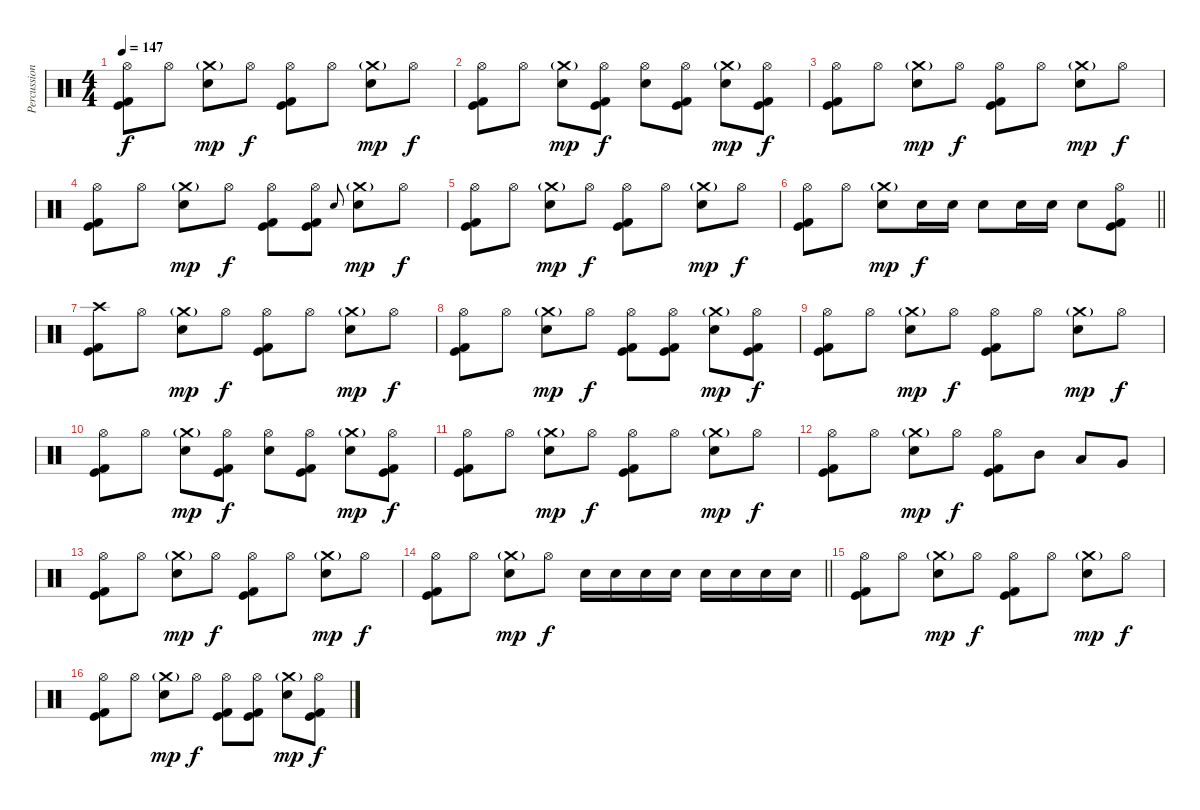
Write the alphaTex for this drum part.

\track ("Percussion" "Percussion") {instrument percussion}
\staff {score}
\articulation defaults
\ts (4 4)
\tempo 147
\clef neutral
\ks c
("Hi-Hat (open)" "Kick (hit)" "Kick (hit) 2").8{dy f} "Hi-Hat (open)".8 ("Crash medium (hit)"{g} "Electric Snare (hit)").8{dy mp} "Hi-Hat (open)".8{dy f} ("Hi-Hat (open)" "Kick (hit)" "Kick (hit) 2").8 "Hi-Hat (open)".8 ("Crash medium (hit)"{g} "Electric Snare (hit)").8{dy mp} "Hi-Hat (open)".8{dy f} |
("Hi-Hat (open)" "Kick (hit)" "Kick (hit) 2").8 "Hi-Hat (open)".8 ("Crash medium (hit)"{g} "Electric Snare (hit)").8{dy mp} ("Hi-Hat (open)" "Kick (hit)" "Kick (hit) 2").8{dy f} ("Hi-Hat (open)" "Electric Snare (hit)").8 ("Hi-Hat (open)" "Kick (hit)" "Kick (hit) 2").8 ("Crash medium (hit)"{g} "Electric Snare (hit)").8{dy mp} ("Hi-Hat (open)" "Kick (hit)" "Kick (hit) 2").8{dy f} |
("Hi-Hat (open)" "Kick (hit)" "Kick (hit) 2").8 "Hi-Hat (open)".8 ("Crash medium (hit)"{g} "Electric Snare (hit)").8{dy mp} "Hi-Hat (open)".8{dy f} ("Hi-Hat (open)" "Kick (hit)" "Kick (hit) 2").8 "Hi-Hat (open)".8 ("Crash medium (hit)"{g} "Electric Snare (hit)").8{dy mp} "Hi-Hat (open)".8{dy f} |
("Hi-Hat (open)" "Kick (hit)" "Kick (hit) 2").8 "Hi-Hat (open)".8 ("Crash medium (hit)"{g} "Electric Snare (hit)").8{dy mp} "Hi-Hat (open)".8{dy f} ("Hi-Hat (open)" "Kick (hit)" "Kick (hit) 2").8 ("Hi-Hat (open)" "Kick (hit)" "Kick (hit) 2").8 "Electric Snare (hit)".8{gr onbeat} ("Crash medium (hit)"{g} "Electric Snare (hit)").8{dy mp} "Hi-Hat (open)".8{dy f} |
("Hi-Hat (open)" "Kick (hit)" "Kick (hit) 2").8 "Hi-Hat (open)".8 ("Crash medium (hit)"{g} "Electric Snare (hit)").8{dy mp} "Hi-Hat (open)".8{dy f} ("Hi-Hat (open)" "Kick (hit)" "Kick (hit) 2").8 "Hi-Hat (open)".8 ("Crash medium (hit)"{g} "Electric Snare (hit)").8{dy mp} "Hi-Hat (open)".8{dy f} |
\barLineRight lightlight
("Hi-Hat (open)" "Kick (hit)" "Kick (hit) 2").8 "Hi-Hat (open)".8 ("Crash medium (hit)"{g} "Electric Snare (hit)").8{dy mp} "Electric Snare (hit)".16{dy f} "Electric Snare (hit)".16 "Electric Snare (hit)".8 "Electric Snare (hit)".16 "Electric Snare (hit)".16 "Electric Snare (hit)".8 ("Hi-Hat (open)" "Kick (hit)" "Kick (hit) 2").8 |
\section ("" "")
("Crash high (hit)" "Kick (hit)" "Kick (hit) 2").8 "Hi-Hat (open)".8 ("Crash medium (hit)"{g} "Electric Snare (hit)").8{dy mp} "Hi-Hat (open)".8{dy f} ("Hi-Hat (open)" "Kick (hit)" "Kick (hit) 2").8 "Hi-Hat (open)".8 ("Crash medium (hit)"{g} "Electric Snare (hit)").8{dy mp} "Hi-Hat (open)".8{dy f} |
("Hi-Hat (open)" "Kick (hit)" "Kick (hit) 2").8 "Hi-Hat (open)".8 ("Crash medium (hit)"{g} "Electric Snare (hit)").8{dy mp} "Hi-Hat (open)".8{dy f} ("Hi-Hat (open)" "Kick (hit)" "Kick (hit) 2").8 ("Hi-Hat (open)" "Kick (hit)" "Kick (hit) 2").8 ("Crash medium (hit)"{g} "Electric Snare (hit)").8{dy mp} ("Hi-Hat (open)" "Kick (hit)" "Kick (hit) 2").8{dy f} |
("Hi-Hat (open)" "Kick (hit)" "Kick (hit) 2").8 "Hi-Hat (open)".8 ("Crash medium (hit)"{g} "Electric Snare (hit)").8{dy mp} "Hi-Hat (open)".8{dy f} ("Hi-Hat (open)" "Kick (hit)" "Kick (hit) 2").8 "Hi-Hat (open)".8 ("Crash medium (hit)"{g} "Electric Snare (hit)").8{dy mp} "Hi-Hat (open)".8{dy f} |
("Hi-Hat (open)" "Kick (hit)" "Kick (hit) 2").8 "Hi-Hat (open)".8 ("Crash medium (hit)"{g} "Electric Snare (hit)").8{dy mp} ("Hi-Hat (open)" "Kick (hit)" "Kick (hit) 2").8{dy f} ("Hi-Hat (open)" "Electric Snare (hit)").8 ("Hi-Hat (open)" "Kick (hit)" "Kick (hit) 2").8 ("Crash medium (hit)"{g} "Electric Snare (hit)").8{dy mp} ("Hi-Hat (open)" "Kick (hit)" "Kick (hit) 2").8{dy f} |
("Hi-Hat (open)" "Kick (hit)" "Kick (hit) 2").8 "Hi-Hat (open)".8 ("Crash medium (hit)"{g} "Electric Snare (hit)").8{dy mp} "Hi-Hat (open)".8{dy f} ("Hi-Hat (open)" "Kick (hit)" "Kick (hit) 2").8 "Hi-Hat (open)".8 ("Crash medium (hit)"{g} "Electric Snare (hit)").8{dy mp} "Hi-Hat (open)".8{dy f} |
("Hi-Hat (open)" "Kick (hit)" "Kick (hit) 2").8 "Hi-Hat (open)".8 ("Crash medium (hit)"{g} "Electric Snare (hit)").8{dy mp} "Hi-Hat (open)".8{dy f} ("Hi-Hat (open)" "Kick (hit)" "Kick (hit) 2").8 "Mid Tom (hit)".8 "Low Tom (hit)".8 "Very Low Tom (hit)".8 |
("Hi-Hat (open)" "Kick (hit)" "Kick (hit) 2").8 "Hi-Hat (open)".8 ("Crash medium (hit)"{g} "Electric Snare (hit)").8{dy mp} "Hi-Hat (open)".8{dy f} ("Hi-Hat (open)" "Kick (hit)" "Kick (hit) 2").8 "Hi-Hat (open)".8 ("Crash medium (hit)"{g} "Electric Snare (hit)").8{dy mp} "Hi-Hat (open)".8{dy f} |
\barLineRight lightlight
("Hi-Hat (open)" "Kick (hit)" "Kick (hit) 2").8 "Hi-Hat (open)".8 ("Crash medium (hit)"{g} "Electric Snare (hit)").8{dy mp} "Hi-Hat (open)".8{dy f} "Electric Snare (hit)".16 "Electric Snare (hit)".16 "Electric Snare (hit)".16 "Electric Snare (hit)".16 "Electric Snare (hit)".16 "Electric Snare (hit)".16 "Electric Snare (hit)".16 "Electric Snare (hit)".16 |
\section ("" "")
("Hi-Hat (open)" "Kick (hit)" "Kick (hit) 2").8 "Hi-Hat (open)".8 ("Crash medium (hit)"{g} "Electric Snare (hit)").8{dy mp} "Hi-Hat (open)".8{dy f} ("Hi-Hat (open)" "Kick (hit)" "Kick (hit) 2").8 "Hi-Hat (open)".8 ("Crash medium (hit)"{g} "Electric Snare (hit)").8{dy mp} "Hi-Hat (open)".8{dy f} |
("Hi-Hat (open)" "Kick (hit)" "Kick (hit) 2").8 "Hi-Hat (open)".8 ("Crash medium (hit)"{g} "Electric Snare (hit)").8{dy mp} "Hi-Hat (open)".8{dy f} ("Hi-Hat (open)" "Kick (hit)" "Kick (hit) 2").8 ("Hi-Hat (open)" "Kick (hit)" "Kick (hit) 2").8 ("Crash medium (hit)"{g} "Electric Snare (hit)").8{dy mp} ("Hi-Hat (open)" "Kick (hit)" "Kick (hit) 2").8{dy f}
